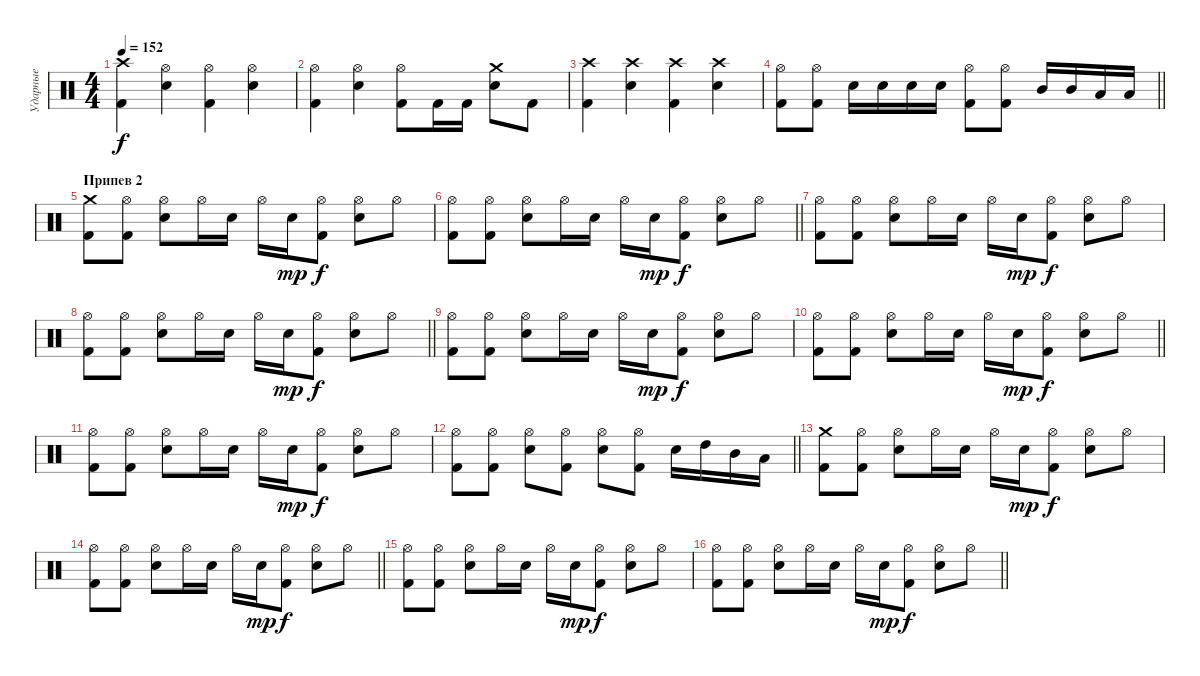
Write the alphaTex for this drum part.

\track ("Ударные" "Ударные") {instrument percussion}
\staff {score}
\articulation defaults
\ts (4 4)
\tempo 152
\clef neutral
\ks c
("Crash high (hit)" "Kick (hit) 2").4{dy f} ("Hi-Hat (open)" "Snare (hit) 2").4 ("Hi-Hat (open)" "Kick (hit) 2").4 ("Hi-Hat (open)" "Snare (hit) 2").4 |
("Hi-Hat (open)" "Kick (hit) 2").4 ("Hi-Hat (open)" "Snare (hit) 2").4 ("Hi-Hat (open)" "Kick (hit) 2").8 "Kick (hit) 2".16 "Kick (hit) 2".16 ("Crash medium (hit)" "Snare (hit) 2").8 "Kick (hit) 2".8 |
("Crash high (hit)" "Kick (hit) 2").4 ("Crash high (hit)" "Snare (hit) 2").4 ("Crash high (hit)" "Kick (hit) 2").4 ("Crash high (hit)" "Snare (hit) 2").4 |
\barLineRight lightlight
("Hi-Hat (open)" "Kick (hit) 2").8 ("Hi-Hat (open)" "Kick (hit) 2").8 "Snare (hit) 2".16 "Snare (hit) 2".16 "Snare (hit) 2".16 "Snare (hit) 2".16 ("Hi-Hat (open)" "Kick (hit) 2").8 ("Hi-Hat (open)" "Kick (hit) 2").8 "Mid Tom (hit)".16 "Mid Tom (hit)".16 "Low Tom (hit)".16 "Low Tom (hit)".16 |
\section ("" "Припев 2")
("Crash medium (hit)" "Kick (hit) 2").8 ("Hi-Hat (open)" "Kick (hit) 2").8 ("Hi-Hat (open)" "Snare (hit) 2").8 "Hi-Hat (open)".16 "Snare (hit) 2".16 "Hi-Hat (open)".16 "Snare (hit) 2".16{dy mp} ("Hi-Hat (open)" "Kick (hit) 2").8{dy f} ("Hi-Hat (open)" "Snare (hit) 2").8 "Hi-Hat (open)".8 |
\barLineRight lightlight
("Hi-Hat (open)" "Kick (hit) 2").8 ("Hi-Hat (open)" "Kick (hit) 2").8 ("Hi-Hat (open)" "Snare (hit) 2").8 "Hi-Hat (open)".16 "Snare (hit) 2".16 "Hi-Hat (open)".16 "Snare (hit) 2".16{dy mp} ("Hi-Hat (open)" "Kick (hit) 2").8{dy f} ("Hi-Hat (open)" "Snare (hit) 2").8 "Hi-Hat (open)".8 |
("Hi-Hat (open)" "Kick (hit) 2").8 ("Hi-Hat (open)" "Kick (hit) 2").8 ("Hi-Hat (open)" "Snare (hit) 2").8 "Hi-Hat (open)".16 "Snare (hit) 2".16 "Hi-Hat (open)".16 "Snare (hit) 2".16{dy mp} ("Hi-Hat (open)" "Kick (hit) 2").8{dy f} ("Hi-Hat (open)" "Snare (hit) 2").8 "Hi-Hat (open)".8 |
\barLineRight lightlight
("Hi-Hat (open)" "Kick (hit) 2").8 ("Hi-Hat (open)" "Kick (hit) 2").8 ("Hi-Hat (open)" "Snare (hit) 2").8 "Hi-Hat (open)".16 "Snare (hit) 2".16 "Hi-Hat (open)".16 "Snare (hit) 2".16{dy mp} ("Hi-Hat (open)" "Kick (hit) 2").8{dy f} ("Hi-Hat (open)" "Snare (hit) 2").8 "Hi-Hat (open)".8 |
("Hi-Hat (open)" "Kick (hit) 2").8 ("Hi-Hat (open)" "Kick (hit) 2").8 ("Hi-Hat (open)" "Snare (hit) 2").8 "Hi-Hat (open)".16 "Snare (hit) 2".16 "Hi-Hat (open)".16 "Snare (hit) 2".16{dy mp} ("Hi-Hat (open)" "Kick (hit) 2").8{dy f} ("Hi-Hat (open)" "Snare (hit) 2").8 "Hi-Hat (open)".8 |
\barLineRight lightlight
("Hi-Hat (open)" "Kick (hit) 2").8 ("Hi-Hat (open)" "Kick (hit) 2").8 ("Hi-Hat (open)" "Snare (hit) 2").8 "Hi-Hat (open)".16 "Snare (hit) 2".16 "Hi-Hat (open)".16 "Snare (hit) 2".16{dy mp} ("Hi-Hat (open)" "Kick (hit) 2").8{dy f} ("Hi-Hat (open)" "Snare (hit) 2").8 "Hi-Hat (open)".8 |
("Hi-Hat (open)" "Kick (hit) 2").8 ("Hi-Hat (open)" "Kick (hit) 2").8 ("Hi-Hat (open)" "Snare (hit) 2").8 "Hi-Hat (open)".16 "Snare (hit) 2".16 "Hi-Hat (open)".16 "Snare (hit) 2".16{dy mp} ("Hi-Hat (open)" "Kick (hit) 2").8{dy f} ("Hi-Hat (open)" "Snare (hit) 2").8 "Hi-Hat (open)".8 |
\barLineRight lightlight
("Hi-Hat (open)" "Kick (hit) 2").8 ("Hi-Hat (open)" "Kick (hit) 2").8 ("Hi-Hat (open)" "Snare (hit) 2").8 ("Hi-Hat (open)" "Kick (hit) 2").8 ("Hi-Hat (open)" "Snare (hit) 2").8 ("Hi-Hat (open)" "Kick (hit) 2").8 "Snare (hit) 2".16 "High Tom (hit)".16 "Mid Tom (hit)".16 "Low Tom (hit)".16 |
("Crash medium (hit)" "Kick (hit) 2").8 ("Hi-Hat (open)" "Kick (hit) 2").8 ("Hi-Hat (open)" "Snare (hit) 2").8 "Hi-Hat (open)".16 "Snare (hit) 2".16 "Hi-Hat (open)".16 "Snare (hit) 2".16{dy mp} ("Hi-Hat (open)" "Kick (hit) 2").8{dy f} ("Hi-Hat (open)" "Snare (hit) 2").8 "Hi-Hat (open)".8 |
\barLineRight lightlight
("Hi-Hat (open)" "Kick (hit) 2").8 ("Hi-Hat (open)" "Kick (hit) 2").8 ("Hi-Hat (open)" "Snare (hit) 2").8 "Hi-Hat (open)".16 "Snare (hit) 2".16 "Hi-Hat (open)".16 "Snare (hit) 2".16{dy mp} ("Hi-Hat (open)" "Kick (hit) 2").8{dy f} ("Hi-Hat (open)" "Snare (hit) 2").8 "Hi-Hat (open)".8 |
("Hi-Hat (open)" "Kick (hit) 2").8 ("Hi-Hat (open)" "Kick (hit) 2").8 ("Hi-Hat (open)" "Snare (hit) 2").8 "Hi-Hat (open)".16 "Snare (hit) 2".16 "Hi-Hat (open)".16 "Snare (hit) 2".16{dy mp} ("Hi-Hat (open)" "Kick (hit) 2").8{dy f} ("Hi-Hat (open)" "Snare (hit) 2").8 "Hi-Hat (open)".8 |
\barLineRight lightlight
("Hi-Hat (open)" "Kick (hit) 2").8 ("Hi-Hat (open)" "Kick (hit) 2").8 ("Hi-Hat (open)" "Snare (hit) 2").8 "Hi-Hat (open)".16 "Snare (hit) 2".16 "Hi-Hat (open)".16 "Snare (hit) 2".16{dy mp} ("Hi-Hat (open)" "Kick (hit) 2").8{dy f} ("Hi-Hat (open)" "Snare (hit) 2").8 "Hi-Hat (open)".8
